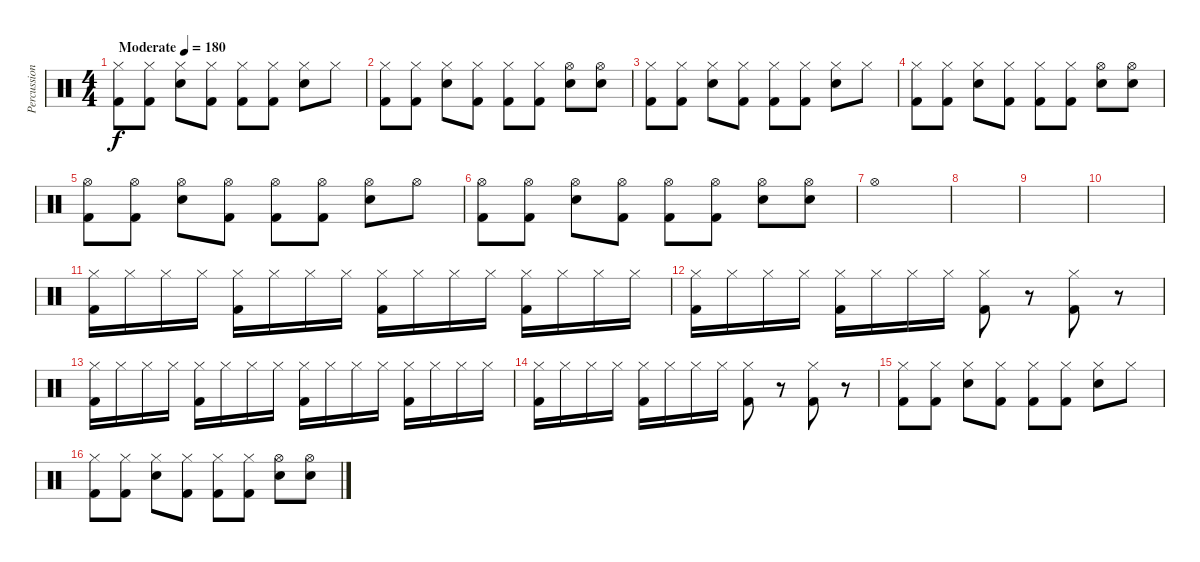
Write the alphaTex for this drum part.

\track ("Percussion" "Percussion") {instrument percussion}
\staff {score}
\articulation defaults
\ts (4 4)
\tempo (180 "Moderate")
\clef neutral
\ks c
("Hi-Hat (closed)" "Kick (hit) 2").8{dy f} ("Hi-Hat (closed)" "Kick (hit) 2").8 ("Hi-Hat (closed)" "Electric Snare (hit)").8 ("Hi-Hat (closed)" "Kick (hit) 2").8 ("Hi-Hat (closed)" "Kick (hit) 2").8 ("Hi-Hat (closed)" "Kick (hit) 2").8 ("Hi-Hat (closed)" "Electric Snare (hit)").8 "Hi-Hat (closed)".8 |
("Hi-Hat (closed)" "Kick (hit) 2").8 ("Hi-Hat (closed)" "Kick (hit) 2").8 ("Hi-Hat (closed)" "Electric Snare (hit)").8 ("Hi-Hat (closed)" "Kick (hit) 2").8 ("Hi-Hat (closed)" "Kick (hit) 2").8 ("Hi-Hat (closed)" "Kick (hit) 2").8 ("Hi-Hat (open)" "Electric Snare (hit)").8 ("Hi-Hat (open)" "Electric Snare (hit)").8 |
("Hi-Hat (closed)" "Kick (hit) 2").8 ("Hi-Hat (closed)" "Kick (hit) 2").8 ("Hi-Hat (closed)" "Electric Snare (hit)").8 ("Hi-Hat (closed)" "Kick (hit) 2").8 ("Hi-Hat (closed)" "Kick (hit) 2").8 ("Hi-Hat (closed)" "Kick (hit) 2").8 ("Hi-Hat (closed)" "Electric Snare (hit)").8 "Hi-Hat (closed)".8 |
("Hi-Hat (closed)" "Kick (hit) 2").8 ("Hi-Hat (closed)" "Kick (hit) 2").8 ("Hi-Hat (closed)" "Electric Snare (hit)").8 ("Hi-Hat (closed)" "Kick (hit) 2").8 ("Hi-Hat (closed)" "Kick (hit) 2").8 ("Hi-Hat (closed)" "Kick (hit) 2").8 ("Hi-Hat (open)" "Electric Snare (hit)").8 ("Hi-Hat (open)" "Electric Snare (hit)").8 |
("Hi-Hat (open)" "Kick (hit) 2").8 ("Hi-Hat (open)" "Kick (hit) 2").8 ("Hi-Hat (open)" "Electric Snare (hit)").8 ("Hi-Hat (open)" "Kick (hit) 2").8 ("Hi-Hat (open)" "Kick (hit) 2").8 ("Hi-Hat (open)" "Kick (hit) 2").8 ("Hi-Hat (open)" "Electric Snare (hit)").8 "Hi-Hat (open)".8 |
("Hi-Hat (open)" "Kick (hit) 2").8 ("Hi-Hat (open)" "Kick (hit) 2").8 ("Hi-Hat (open)" "Electric Snare (hit)").8 ("Hi-Hat (open)" "Kick (hit) 2").8 ("Hi-Hat (open)" "Kick (hit) 2").8 ("Hi-Hat (open)" "Kick (hit) 2").8 ("Hi-Hat (open)" "Electric Snare (hit)").8 ("Hi-Hat (open)" "Electric Snare (hit)").8 |
"Hi-Hat (open)".1 |
|
|
|
("Hi-Hat (closed)" "Kick (hit) 2").16 "Hi-Hat (closed)".16 "Hi-Hat (closed)".16 "Hi-Hat (closed)".16 ("Hi-Hat (closed)" "Kick (hit) 2").16 "Hi-Hat (closed)".16 "Hi-Hat (closed)".16 "Hi-Hat (closed)".16 ("Hi-Hat (closed)" "Kick (hit) 2").16 "Hi-Hat (closed)".16 "Hi-Hat (closed)".16 "Hi-Hat (closed)".16 ("Hi-Hat (closed)" "Kick (hit) 2").16 "Hi-Hat (closed)".16 "Hi-Hat (closed)".16 "Hi-Hat (closed)".16 |
("Hi-Hat (closed)" "Kick (hit) 2").16 "Hi-Hat (closed)".16 "Hi-Hat (closed)".16 "Hi-Hat (closed)".16 ("Hi-Hat (closed)" "Kick (hit) 2").16 "Hi-Hat (closed)".16 "Hi-Hat (closed)".16 "Hi-Hat (closed)".16 ("Hi-Hat (closed)" "Kick (hit) 2").8 r.8 ("Hi-Hat (closed)" "Kick (hit) 2").8 r.8 |
("Hi-Hat (closed)" "Kick (hit) 2").16 "Hi-Hat (closed)".16 "Hi-Hat (closed)".16 "Hi-Hat (closed)".16 ("Hi-Hat (closed)" "Kick (hit) 2").16 "Hi-Hat (closed)".16 "Hi-Hat (closed)".16 "Hi-Hat (closed)".16 ("Hi-Hat (closed)" "Kick (hit) 2").16 "Hi-Hat (closed)".16 "Hi-Hat (closed)".16 "Hi-Hat (closed)".16 ("Hi-Hat (closed)" "Kick (hit) 2").16 "Hi-Hat (closed)".16 "Hi-Hat (closed)".16 "Hi-Hat (closed)".16 |
("Hi-Hat (closed)" "Kick (hit) 2").16 "Hi-Hat (closed)".16 "Hi-Hat (closed)".16 "Hi-Hat (closed)".16 ("Hi-Hat (closed)" "Kick (hit) 2").16 "Hi-Hat (closed)".16 "Hi-Hat (closed)".16 "Hi-Hat (closed)".16 ("Hi-Hat (closed)" "Kick (hit) 2").8 r.8 ("Hi-Hat (closed)" "Kick (hit) 2").8 r.8 |
("Hi-Hat (closed)" "Kick (hit) 2").8 ("Hi-Hat (closed)" "Kick (hit) 2").8 ("Hi-Hat (closed)" "Electric Snare (hit)").8 ("Hi-Hat (closed)" "Kick (hit) 2").8 ("Hi-Hat (closed)" "Kick (hit) 2").8 ("Hi-Hat (closed)" "Kick (hit) 2").8 ("Hi-Hat (closed)" "Electric Snare (hit)").8 "Hi-Hat (closed)".8 |
("Hi-Hat (closed)" "Kick (hit) 2").8 ("Hi-Hat (closed)" "Kick (hit) 2").8 ("Hi-Hat (closed)" "Electric Snare (hit)").8 ("Hi-Hat (closed)" "Kick (hit) 2").8 ("Hi-Hat (closed)" "Kick (hit) 2").8 ("Hi-Hat (closed)" "Kick (hit) 2").8 ("Hi-Hat (open)" "Electric Snare (hit)").8 ("Hi-Hat (open)" "Electric Snare (hit)").8
